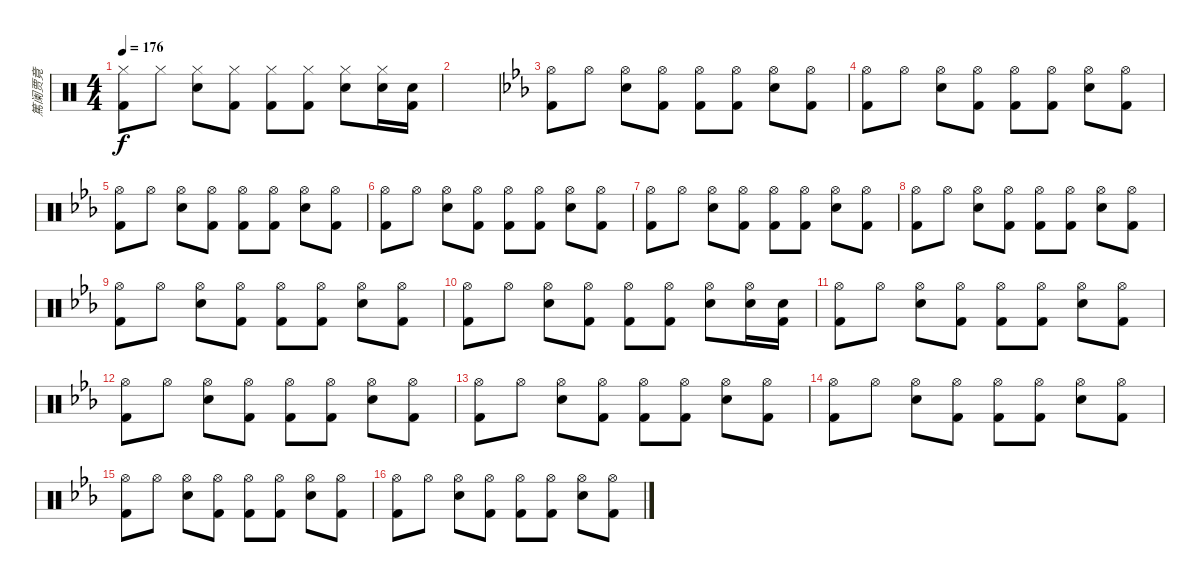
\track ("篤阑贾竟" "篤阑贾竟") {instrument percussion}
\staff {score}
\articulation defaults
\ts (4 4)
\tempo 176
\clef neutral
\ks c
("Hi-Hat (closed)" "Kick (hit) 2").8{dy f} "Hi-Hat (closed)".8 ("Hi-Hat (closed)" "Snare (hit) 2").8 ("Hi-Hat (closed)" "Kick (hit) 2").8 ("Hi-Hat (closed)" "Kick (hit) 2").8 ("Hi-Hat (closed)" "Kick (hit) 2").8 ("Hi-Hat (closed)" "Snare (hit) 2").8 ("Hi-Hat (closed)" "Snare (hit) 2").16 ("Snare (hit) 2" "Kick (hit) 2").16 |
|
\ks eb
("Hi-Hat (open)" "Kick (hit) 2").8 "Hi-Hat (open)".8 ("Hi-Hat (open)" "Snare (hit) 2").8 ("Hi-Hat (open)" "Kick (hit) 2").8 ("Hi-Hat (open)" "Kick (hit) 2").8 ("Hi-Hat (open)" "Kick (hit) 2").8 ("Hi-Hat (open)" "Snare (hit) 2").8 ("Hi-Hat (open)" "Kick (hit) 2").8 |
("Hi-Hat (open)" "Kick (hit) 2").8 "Hi-Hat (open)".8 ("Hi-Hat (open)" "Snare (hit) 2").8 ("Hi-Hat (open)" "Kick (hit) 2").8 ("Hi-Hat (open)" "Kick (hit) 2").8 ("Hi-Hat (open)" "Kick (hit) 2").8 ("Hi-Hat (open)" "Snare (hit) 2").8 ("Hi-Hat (open)" "Kick (hit) 2").8 |
("Hi-Hat (open)" "Kick (hit) 2").8 "Hi-Hat (open)".8 ("Hi-Hat (open)" "Snare (hit) 2").8 ("Hi-Hat (open)" "Kick (hit) 2").8 ("Hi-Hat (open)" "Kick (hit) 2").8 ("Hi-Hat (open)" "Kick (hit) 2").8 ("Hi-Hat (open)" "Snare (hit) 2").8 ("Hi-Hat (open)" "Kick (hit) 2").8 |
("Hi-Hat (open)" "Kick (hit) 2").8 "Hi-Hat (open)".8 ("Hi-Hat (open)" "Snare (hit) 2").8 ("Hi-Hat (open)" "Kick (hit) 2").8 ("Hi-Hat (open)" "Kick (hit) 2").8 ("Hi-Hat (open)" "Kick (hit) 2").8 ("Hi-Hat (open)" "Snare (hit) 2").8 ("Hi-Hat (open)" "Kick (hit) 2").8 |
("Hi-Hat (open)" "Kick (hit) 2").8 "Hi-Hat (open)".8 ("Hi-Hat (open)" "Snare (hit) 2").8 ("Hi-Hat (open)" "Kick (hit) 2").8 ("Hi-Hat (open)" "Kick (hit) 2").8 ("Hi-Hat (open)" "Kick (hit) 2").8 ("Hi-Hat (open)" "Snare (hit) 2").8 ("Hi-Hat (open)" "Kick (hit) 2").8 |
("Hi-Hat (open)" "Kick (hit) 2").8 "Hi-Hat (open)".8 ("Hi-Hat (open)" "Snare (hit) 2").8 ("Hi-Hat (open)" "Kick (hit) 2").8 ("Hi-Hat (open)" "Kick (hit) 2").8 ("Hi-Hat (open)" "Kick (hit) 2").8 ("Hi-Hat (open)" "Snare (hit) 2").8 ("Hi-Hat (open)" "Kick (hit) 2").8 |
("Hi-Hat (open)" "Kick (hit) 2").8 "Hi-Hat (open)".8 ("Hi-Hat (open)" "Snare (hit) 2").8 ("Hi-Hat (open)" "Kick (hit) 2").8 ("Hi-Hat (open)" "Kick (hit) 2").8 ("Hi-Hat (open)" "Kick (hit) 2").8 ("Hi-Hat (open)" "Snare (hit) 2").8 ("Hi-Hat (open)" "Kick (hit) 2").8 |
("Hi-Hat (open)" "Kick (hit) 2").8 "Hi-Hat (open)".8 ("Hi-Hat (open)" "Snare (hit) 2").8 ("Hi-Hat (open)" "Kick (hit) 2").8 ("Hi-Hat (open)" "Kick (hit) 2").8 ("Hi-Hat (open)" "Kick (hit) 2").8 ("Hi-Hat (open)" "Snare (hit) 2").8 ("Hi-Hat (open)" "Snare (hit) 2").16 ("Snare (hit) 2" "Kick (hit) 2").16 |
("Hi-Hat (open)" "Kick (hit) 2").8 "Hi-Hat (open)".8 ("Hi-Hat (open)" "Snare (hit) 2").8 ("Hi-Hat (open)" "Kick (hit) 2").8 ("Hi-Hat (open)" "Kick (hit) 2").8 ("Hi-Hat (open)" "Kick (hit) 2").8 ("Hi-Hat (open)" "Snare (hit) 2").8 ("Hi-Hat (open)" "Kick (hit) 2").8 |
("Hi-Hat (open)" "Kick (hit) 2").8 "Hi-Hat (open)".8 ("Hi-Hat (open)" "Snare (hit) 2").8 ("Hi-Hat (open)" "Kick (hit) 2").8 ("Hi-Hat (open)" "Kick (hit) 2").8 ("Hi-Hat (open)" "Kick (hit) 2").8 ("Hi-Hat (open)" "Snare (hit) 2").8 ("Hi-Hat (open)" "Kick (hit) 2").8 |
("Hi-Hat (open)" "Kick (hit) 2").8 "Hi-Hat (open)".8 ("Hi-Hat (open)" "Snare (hit) 2").8 ("Hi-Hat (open)" "Kick (hit) 2").8 ("Hi-Hat (open)" "Kick (hit) 2").8 ("Hi-Hat (open)" "Kick (hit) 2").8 ("Hi-Hat (open)" "Snare (hit) 2").8 ("Hi-Hat (open)" "Kick (hit) 2").8 |
("Hi-Hat (open)" "Kick (hit) 2").8 "Hi-Hat (open)".8 ("Hi-Hat (open)" "Snare (hit) 2").8 ("Hi-Hat (open)" "Kick (hit) 2").8 ("Hi-Hat (open)" "Kick (hit) 2").8 ("Hi-Hat (open)" "Kick (hit) 2").8 ("Hi-Hat (open)" "Snare (hit) 2").8 ("Hi-Hat (open)" "Kick (hit) 2").8 |
("Hi-Hat (open)" "Kick (hit) 2").8 "Hi-Hat (open)".8 ("Hi-Hat (open)" "Snare (hit) 2").8 ("Hi-Hat (open)" "Kick (hit) 2").8 ("Hi-Hat (open)" "Kick (hit) 2").8 ("Hi-Hat (open)" "Kick (hit) 2").8 ("Hi-Hat (open)" "Snare (hit) 2").8 ("Hi-Hat (open)" "Kick (hit) 2").8 |
("Hi-Hat (open)" "Kick (hit) 2").8 "Hi-Hat (open)".8 ("Hi-Hat (open)" "Snare (hit) 2").8 ("Hi-Hat (open)" "Kick (hit) 2").8 ("Hi-Hat (open)" "Kick (hit) 2").8 ("Hi-Hat (open)" "Kick (hit) 2").8 ("Hi-Hat (open)" "Snare (hit) 2").8 ("Hi-Hat (open)" "Kick (hit) 2").8
